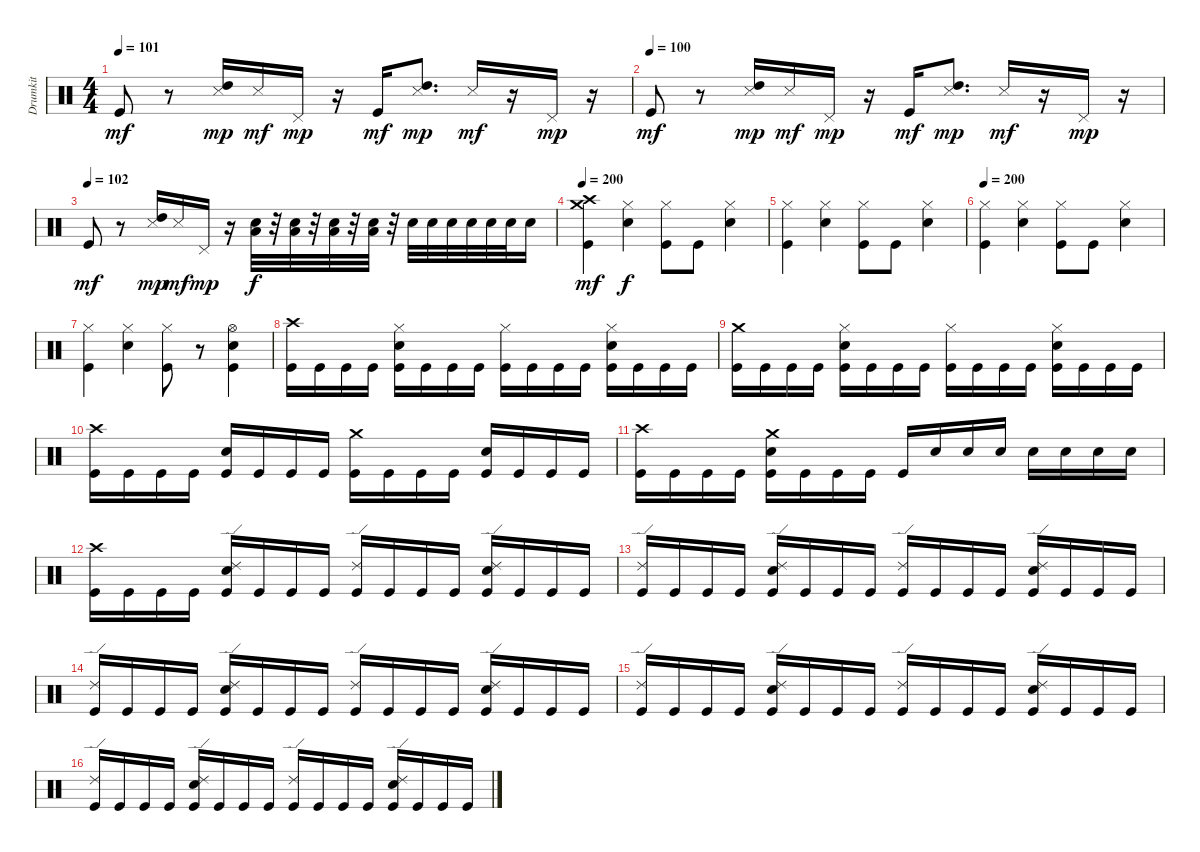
\track ("Drumkit" "Drumkit") {instrument percussion}
\staff {score}
\articulation defaults
\ts (4 4)
\tempo 101
\clef neutral
\ks c "Kick (hit)".8{dy mf}
r.8 ("High Tom (hit)" "Snare (side stick) 3").16{dy mp} "Snare (side stick) 3".16{dy mf} "Pedal Hi-Hat (hit)".16{dy mp} r.16 "Kick (hit)".16{dy mf} ("High Tom (hit)" "Snare (side stick) 3").8{d dy mp} "Snare (side stick) 3".16{dy mf} r.16 "Pedal Hi-Hat (hit)".16{dy mp} r.16 |
\tempo (100)
"Kick (hit)".8{dy mf} r.8 ("High Tom (hit)" "Snare (side stick) 3").16{dy mp} "Snare (side stick) 3".16{dy mf} "Pedal Hi-Hat (hit)".16{dy mp} r.16 "Kick (hit)".16{dy mf} ("High Tom (hit)" "Snare (side stick) 3").8{d dy mp} "Snare (side stick) 3".16{dy mf} r.16 "Pedal Hi-Hat (hit)".16{dy mp} r.16 |
\tempo (102)
"Kick (hit)".8{dy mf} r.8 ("High Tom (hit)" "Snare (side stick) 3").16{dy mp} "Snare (side stick) 3".16{dy mf} "Pedal Hi-Hat (hit)".16{dy mp} r.16 ("Snare (hit) 2" "Low Tom (hit)").32{dy f} r.32 ("Snare (hit) 2" "Low Tom (hit)").32 r.32 ("Snare (hit) 2" "Low Tom (hit)").32 r.32 ("Snare (hit) 2" "Low Tom (hit)").32 r.32 "Snare (hit) 2".32 "Snare (hit) 2".32 "Snare (hit) 2".32 "Snare (hit) 2".32 "Snare (hit) 2".32 "Snare (hit) 2".32 "Snare (hit) 2".16 |
\tempo 200
("Crash high (hit)" "Crash medium (hit)" "Kick (hit)").4{dy mf} ("Hi-Hat (closed)" "Snare (hit) 2").4{dy f} ("Hi-Hat (closed)" "Kick (hit)").8 "Kick (hit)".8 ("Hi-Hat (closed)" "Snare (hit) 2").4 |
("Hi-Hat (closed)" "Kick (hit)").4 ("Hi-Hat (closed)" "Snare (hit) 2").4 ("Hi-Hat (closed)" "Kick (hit)").8 "Kick (hit)".8 ("Hi-Hat (closed)" "Snare (hit) 2").4 |
\tempo 200
("Hi-Hat (closed)" "Kick (hit)").4 ("Hi-Hat (closed)" "Snare (hit) 2").4 ("Hi-Hat (closed)" "Kick (hit)").8 "Kick (hit)".8 ("Hi-Hat (closed)" "Snare (hit) 2").4 |
("Hi-Hat (closed)" "Kick (hit)").4 ("Hi-Hat (closed)" "Snare (hit) 2").4 ("Hi-Hat (closed)" "Kick (hit)").8 r.8 ("Hi-Hat (open)" "Snare (hit) 2" "Kick (hit)").4 |
("Crash high (hit)" "Kick (hit)").16 "Kick (hit)".16 "Kick (hit)".16 "Kick (hit)".16 ("Hi-Hat (closed)" "Snare (hit) 2" "Kick (hit)").16 "Kick (hit)".16 "Kick (hit)".16 "Kick (hit)".16 ("Hi-Hat (closed)" "Kick (hit)").16 "Kick (hit)".16 "Kick (hit)".16 "Kick (hit)".16 ("Hi-Hat (closed)" "Snare (hit) 2" "Kick (hit)").16 "Kick (hit)".16 "Kick (hit)".16 "Kick (hit)".16 |
("Crash medium (hit)" "Kick (hit)").16 "Kick (hit)".16 "Kick (hit)".16 "Kick (hit)".16 ("Hi-Hat (closed)" "Snare (hit) 2" "Kick (hit)").16 "Kick (hit)".16 "Kick (hit)".16 "Kick (hit)".16 ("Hi-Hat (closed)" "Kick (hit)").16 "Kick (hit)".16 "Kick (hit)".16 "Kick (hit)".16 ("Hi-Hat (closed)" "Snare (hit) 2" "Kick (hit)").16 "Kick (hit)".16 "Kick (hit)".16 "Kick (hit)".16 |
("Crash high (hit)" "Kick (hit)").16 "Kick (hit)".16 "Kick (hit)".16 "Kick (hit)".16 ("Snare (hit) 2" "Kick (hit)").16 "Kick (hit)".16 "Kick (hit)".16 "Kick (hit)".16 ("Crash medium (hit)" "Kick (hit)").16 "Kick (hit)".16 "Kick (hit)".16 "Kick (hit)".16 ("Snare (hit) 2" "Kick (hit)").16 "Kick (hit)".16 "Kick (hit)".16 "Kick (hit)".16 |
("Crash high (hit)" "Kick (hit)").16 "Kick (hit)".16 "Kick (hit)".16 "Kick (hit)".16 ("Crash medium (hit)" "Snare (hit) 2" "Kick (hit)").16 "Kick (hit)".16 "Kick (hit)".16 "Kick (hit)".16 "Kick (hit)".16 "Snare (hit) 2".16 "Snare (hit) 2".16 "Snare (hit) 2".16 "Snare (hit) 2".16 "Snare (hit) 2".16 "Snare (hit) 2".16 "Snare (hit) 2".16 |
("Crash high (hit)" "Kick (hit)").16 "Kick (hit)".16 "Kick (hit)".16 "Kick (hit)".16 ("Ride (edge) 2" "Snare (hit) 2" "Kick (hit)").16 "Kick (hit)".16 "Kick (hit)".16 "Kick (hit)".16 ("Ride (edge) 2" "Kick (hit)").16 "Kick (hit)".16 "Kick (hit)".16 "Kick (hit)".16 ("Ride (edge) 2" "Snare (hit) 2" "Kick (hit)").16 "Kick (hit)".16 "Kick (hit)".16 "Kick (hit)".16 |
("Ride (edge) 2" "Kick (hit)").16 "Kick (hit)".16 "Kick (hit)".16 "Kick (hit)".16 ("Ride (edge) 2" "Snare (hit) 2" "Kick (hit)").16 "Kick (hit)".16 "Kick (hit)".16 "Kick (hit)".16 ("Ride (edge) 2" "Kick (hit)").16 "Kick (hit)".16 "Kick (hit)".16 "Kick (hit)".16 ("Ride (edge) 2" "Snare (hit) 2" "Kick (hit)").16 "Kick (hit)".16 "Kick (hit)".16 "Kick (hit)".16 |
("Ride (edge) 2" "Kick (hit)").16 "Kick (hit)".16 "Kick (hit)".16 "Kick (hit)".16 ("Ride (edge) 2" "Snare (hit) 2" "Kick (hit)").16 "Kick (hit)".16 "Kick (hit)".16 "Kick (hit)".16 ("Ride (edge) 2" "Kick (hit)").16 "Kick (hit)".16 "Kick (hit)".16 "Kick (hit)".16 ("Ride (edge) 2" "Snare (hit) 2" "Kick (hit)").16 "Kick (hit)".16 "Kick (hit)".16 "Kick (hit)".16 |
("Ride (edge) 2" "Kick (hit)").16 "Kick (hit)".16 "Kick (hit)".16 "Kick (hit)".16 ("Ride (edge) 2" "Snare (hit) 2" "Kick (hit)").16 "Kick (hit)".16 "Kick (hit)".16 "Kick (hit)".16 ("Ride (edge) 2" "Kick (hit)").16 "Kick (hit)".16 "Kick (hit)".16 "Kick (hit)".16 ("Ride (edge) 2" "Snare (hit) 2" "Kick (hit)").16 "Kick (hit)".16 "Kick (hit)".16 "Kick (hit)".16 |
("Ride (edge) 2" "Kick (hit)").16 "Kick (hit)".16 "Kick (hit)".16 "Kick (hit)".16 ("Ride (edge) 2" "Snare (hit) 2" "Kick (hit)").16 "Kick (hit)".16 "Kick (hit)".16 "Kick (hit)".16 ("Ride (edge) 2" "Kick (hit)").16 "Kick (hit)".16 "Kick (hit)".16 "Kick (hit)".16 ("Ride (edge) 2" "Snare (hit) 2" "Kick (hit)").16 "Kick (hit)".16 "Kick (hit)".16 "Kick (hit)".16
